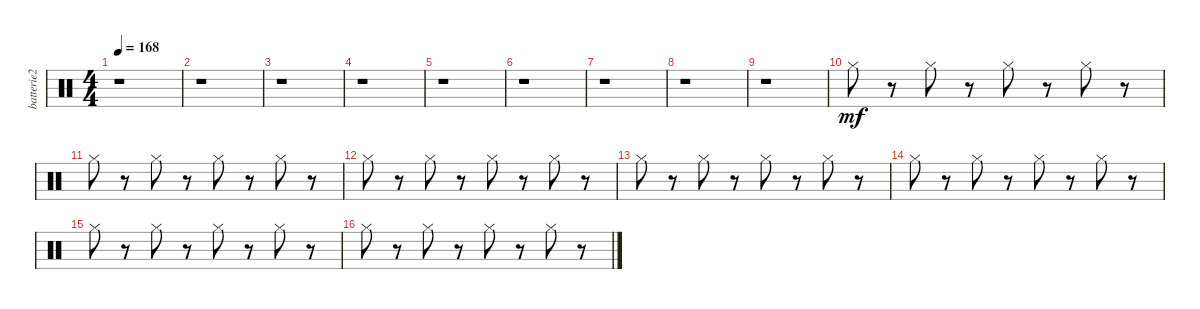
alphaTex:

\track ("batterie2" "batterie2") {instrument percussion}
\staff {score}
\articulation defaults
\ts (4 4)
\tempo 168
\clef neutral
\ks c
r.1{dy mf} |
r.1 |
r.1 |
r.1 |
r.1 |
r.1 |
r.1 |
r.1 |
r.1 |
"Hi-Hat (closed)".8 r.8 "Hi-Hat (closed)".8 r.8 "Hi-Hat (closed)".8 r.8 "Hi-Hat (closed)".8 r.8 |
"Hi-Hat (closed)".8 r.8 "Hi-Hat (closed)".8 r.8 "Hi-Hat (closed)".8 r.8 "Hi-Hat (closed)".8 r.8 |
"Hi-Hat (closed)".8 r.8 "Hi-Hat (closed)".8 r.8 "Hi-Hat (closed)".8 r.8 "Hi-Hat (closed)".8 r.8 |
"Hi-Hat (closed)".8 r.8 "Hi-Hat (closed)".8 r.8 "Hi-Hat (closed)".8 r.8 "Hi-Hat (closed)".8 r.8 |
"Hi-Hat (closed)".8 r.8 "Hi-Hat (closed)".8 r.8 "Hi-Hat (closed)".8 r.8 "Hi-Hat (closed)".8 r.8 |
"Hi-Hat (closed)".8 r.8 "Hi-Hat (closed)".8 r.8 "Hi-Hat (closed)".8 r.8 "Hi-Hat (closed)".8 r.8 |
"Hi-Hat (closed)".8 r.8 "Hi-Hat (closed)".8 r.8 "Hi-Hat (closed)".8 r.8 "Hi-Hat (closed)".8 r.8
